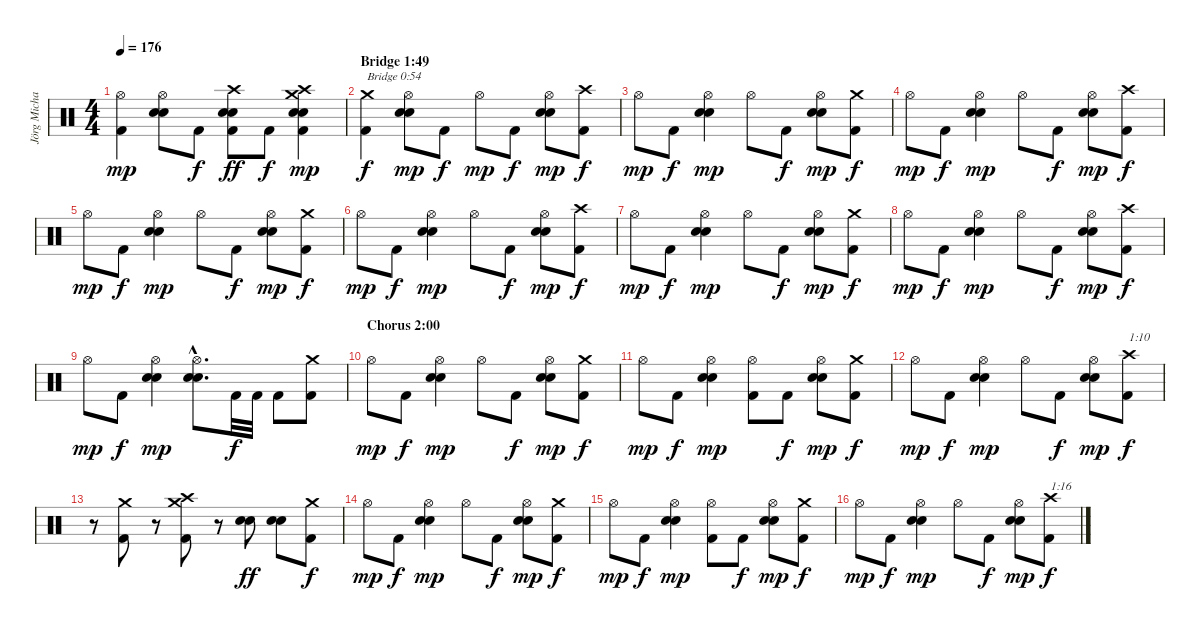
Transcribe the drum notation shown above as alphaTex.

\track ("Jörg Michael" "Jörg Micha") {instrument percussion}
\staff {score}
\articulation defaults
\ts (4 4)
\tempo 176
\clef neutral
\ks c
("Kick (hit) 2" "Hi-Hat (open)").4{dy mp} ("Snare (hit) 2" "Electric Snare (hit)" "Hi-Hat (open)").8 "Kick (hit) 2".8{dy f} ("Kick (hit) 2" "Snare (hit) 2" "Electric Snare (hit)" "Crash high (hit)").8{dy ff} "Kick (hit) 2".8{dy f} ("Kick (hit) 2" "Snare (hit) 2" "Electric Snare (hit)" "Crash high (hit)" "Crash medium (hit)").4{dy mp} |
\section ("" "Bridge 1:49")
("Kick (hit) 2" "Crash medium (hit)").4{txt "Bridge 0:54" dy f} ("Snare (hit) 2" "Electric Snare (hit)" "Hi-Hat (open)").8{dy mp} "Kick (hit) 2".8{dy f} "Hi-Hat (open)".8{dy mp} "Kick (hit) 2".8{dy f} ("Snare (hit) 2" "Electric Snare (hit)" "Hi-Hat (open)").8{dy mp} ("Kick (hit) 2" "Crash high (hit)").8{dy f} |
"Hi-Hat (open)".8{dy mp} "Kick (hit) 2".8{dy f} ("Snare (hit) 2" "Electric Snare (hit)" "Hi-Hat (open)").4{dy mp} "Hi-Hat (open)".8 "Kick (hit) 2".8{dy f} ("Snare (hit) 2" "Electric Snare (hit)" "Hi-Hat (open)").8{dy mp} ("Kick (hit) 2" "Crash medium (hit)").8{dy f} |
"Hi-Hat (open)".8{dy mp} "Kick (hit) 2".8{dy f} ("Snare (hit) 2" "Electric Snare (hit)" "Hi-Hat (open)").4{dy mp} "Hi-Hat (open)".8 "Kick (hit) 2".8{dy f} ("Snare (hit) 2" "Electric Snare (hit)" "Hi-Hat (open)").8{dy mp} ("Kick (hit) 2" "Crash high (hit)").8{dy f} |
"Hi-Hat (open)".8{dy mp} "Kick (hit) 2".8{dy f} ("Snare (hit) 2" "Electric Snare (hit)" "Hi-Hat (open)").4{dy mp} "Hi-Hat (open)".8 "Kick (hit) 2".8{dy f} ("Snare (hit) 2" "Electric Snare (hit)" "Hi-Hat (open)").8{dy mp} ("Kick (hit) 2" "Crash medium (hit)").8{dy f} |
"Hi-Hat (open)".8{dy mp} "Kick (hit) 2".8{dy f} ("Snare (hit) 2" "Electric Snare (hit)" "Hi-Hat (open)").4{dy mp} "Hi-Hat (open)".8 "Kick (hit) 2".8{dy f} ("Snare (hit) 2" "Electric Snare (hit)" "Hi-Hat (open)").8{dy mp} ("Kick (hit) 2" "Crash high (hit)").8{dy f} |
"Hi-Hat (open)".8{dy mp} "Kick (hit) 2".8{dy f} ("Snare (hit) 2" "Electric Snare (hit)" "Hi-Hat (open)").4{dy mp} "Hi-Hat (open)".8 "Kick (hit) 2".8{dy f} ("Snare (hit) 2" "Electric Snare (hit)" "Hi-Hat (open)").8{dy mp} ("Kick (hit) 2" "Crash medium (hit)").8{dy f} |
"Hi-Hat (open)".8{dy mp} "Kick (hit) 2".8{dy f} ("Snare (hit) 2" "Electric Snare (hit)" "Hi-Hat (open)").4{dy mp} "Hi-Hat (open)".8 "Kick (hit) 2".8{dy f} ("Snare (hit) 2" "Electric Snare (hit)" "Hi-Hat (open)").8{dy mp} ("Kick (hit) 2" "Crash high (hit)").8{dy f} |
"Hi-Hat (open)".8{dy mp} "Kick (hit) 2".8{dy f} ("Snare (hit) 2" "Electric Snare (hit)" "Hi-Hat (open)").4{dy mp} ("Snare (hit) 2"{hac} "Electric Snare (hit)"{hac} "Hi-Hat (open)"{hac}).8{d} "Kick (hit) 2".32{dy f} "Kick (hit) 2".32 "Kick (hit) 2".8 ("Kick (hit) 2" "Crash medium (hit)").8 |
\section ("" "Chorus 2:00")
"Hi-Hat (open)".8{dy mp} "Kick (hit) 2".8{dy f} ("Snare (hit) 2" "Electric Snare (hit)" "Hi-Hat (open)").4{dy mp} "Hi-Hat (open)".8 "Kick (hit) 2".8{dy f} ("Snare (hit) 2" "Electric Snare (hit)" "Hi-Hat (open)").8{dy mp} ("Kick (hit) 2" "Crash medium (hit)").8{dy f} |
"Hi-Hat (open)".8{dy mp} "Kick (hit) 2".8{dy f} ("Snare (hit) 2" "Electric Snare (hit)" "Hi-Hat (open)").4{dy mp} ("Kick (hit) 2" "Hi-Hat (open)").8 "Kick (hit) 2".8{dy f} ("Snare (hit) 2" "Electric Snare (hit)" "Hi-Hat (open)").8{dy mp} ("Kick (hit) 2" "Crash medium (hit)").8{dy f} |
"Hi-Hat (open)".8{dy mp} "Kick (hit) 2".8{dy f} ("Snare (hit) 2" "Electric Snare (hit)" "Hi-Hat (open)").4{dy mp} "Hi-Hat (open)".8 "Kick (hit) 2".8{dy f} ("Snare (hit) 2" "Electric Snare (hit)" "Hi-Hat (open)").8{dy mp} ("Kick (hit) 2" "Crash high (hit)").8{txt "1:10" dy f} |
r.8 ("Kick (hit) 2" "Crash medium (hit)").8 r.8 ("Kick (hit) 2" "Crash high (hit)" "Crash medium (hit)").8 r.8 ("Snare (hit) 2" "Electric Snare (hit)").8{dy ff} ("Snare (hit) 2" "Electric Snare (hit)").8 ("Kick (hit) 2" "Crash medium (hit)").8{dy f} |
"Hi-Hat (open)".8{dy mp} "Kick (hit) 2".8{dy f} ("Snare (hit) 2" "Electric Snare (hit)" "Hi-Hat (open)").4{dy mp} "Hi-Hat (open)".8 "Kick (hit) 2".8{dy f} ("Snare (hit) 2" "Electric Snare (hit)" "Hi-Hat (open)").8{dy mp} ("Kick (hit) 2" "Crash medium (hit)").8{dy f} |
"Hi-Hat (open)".8{dy mp} "Kick (hit) 2".8{dy f} ("Snare (hit) 2" "Electric Snare (hit)" "Hi-Hat (open)").4{dy mp} ("Kick (hit) 2" "Hi-Hat (open)").8 "Kick (hit) 2".8{dy f} ("Snare (hit) 2" "Electric Snare (hit)" "Hi-Hat (open)").8{dy mp} ("Kick (hit) 2" "Crash medium (hit)").8{dy f} |
"Hi-Hat (open)".8{dy mp} "Kick (hit) 2".8{dy f} ("Snare (hit) 2" "Electric Snare (hit)" "Hi-Hat (open)").4{dy mp} "Hi-Hat (open)".8 "Kick (hit) 2".8{dy f} ("Snare (hit) 2" "Electric Snare (hit)" "Hi-Hat (open)").8{dy mp} ("Kick (hit) 2" "Crash high (hit)").8{txt "1:16" dy f}
